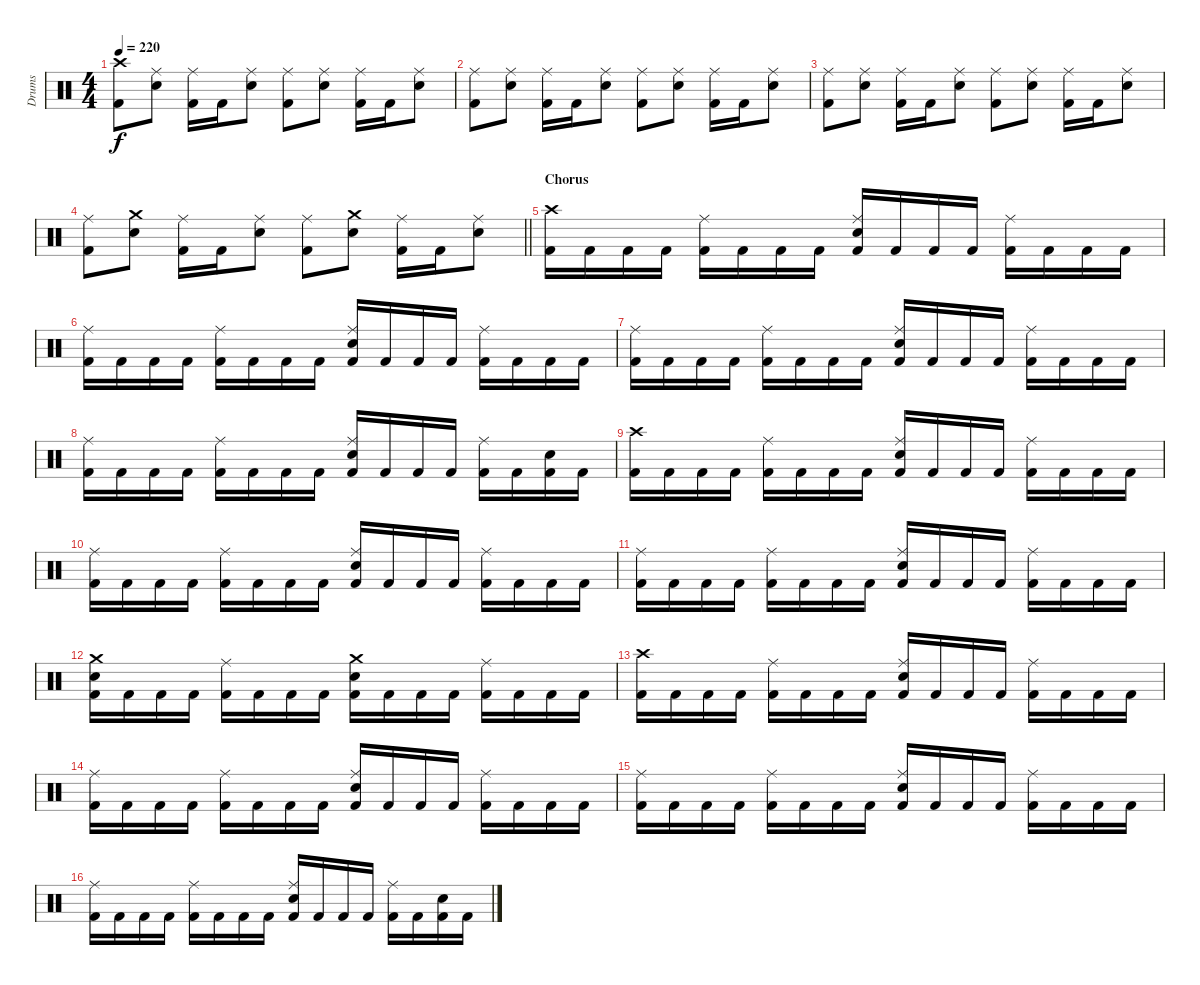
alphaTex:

\track ("Drums" "Drums") {instrument percussion}
\staff {score}
\articulation defaults
\ts (4 4)
\tempo 220
\clef neutral
\ks c
("Crash high (hit)" "Kick (hit) 2").8{dy f} ("Ride (middle)" "Snare (hit) 2").8 ("Ride (middle)" "Kick (hit) 2").16 "Kick (hit) 2".16 ("Ride (middle)" "Snare (hit) 2").8 ("Ride (middle)" "Kick (hit) 2").8 ("Ride (middle)" "Snare (hit) 2").8 ("Ride (middle)" "Kick (hit) 2").16 "Kick (hit) 2".16 ("Ride (middle)" "Snare (hit) 2").8 |
("Ride (middle)" "Kick (hit) 2").8 ("Ride (middle)" "Snare (hit) 2").8 ("Ride (middle)" "Kick (hit) 2").16 "Kick (hit) 2".16 ("Ride (middle)" "Snare (hit) 2").8 ("Ride (middle)" "Kick (hit) 2").8 ("Ride (middle)" "Snare (hit) 2").8 ("Ride (middle)" "Kick (hit) 2").16 "Kick (hit) 2".16 ("Ride (middle)" "Snare (hit) 2").8 |
("Ride (middle)" "Kick (hit) 2").8 ("Ride (middle)" "Snare (hit) 2").8 ("Ride (middle)" "Kick (hit) 2").16 "Kick (hit) 2".16 ("Ride (middle)" "Snare (hit) 2").8 ("Ride (middle)" "Kick (hit) 2").8 ("Ride (middle)" "Snare (hit) 2").8 ("Ride (middle)" "Kick (hit) 2").16 "Kick (hit) 2".16 ("Ride (middle)" "Snare (hit) 2").8 |
\barLineRight lightlight
("Ride (middle)" "Kick (hit) 2").8 ("Crash medium (hit)" "Snare (hit) 2").8 ("Ride (middle)" "Kick (hit) 2").16 "Kick (hit) 2".16 ("Ride (middle)" "Snare (hit) 2").8 ("Ride (middle)" "Kick (hit) 2").8 ("Crash medium (hit)" "Snare (hit) 2").8 ("Ride (middle)" "Kick (hit) 2").16 "Kick (hit) 2".16 ("Ride (middle)" "Snare (hit) 2").8 |
\section ("" "Chorus")
("Crash high (hit)" "Kick (hit) 2").16 "Kick (hit) 2".16 "Kick (hit) 2".16 "Kick (hit) 2".16 ("Ride (middle)" "Kick (hit) 2").16 "Kick (hit) 2".16 "Kick (hit) 2".16 "Kick (hit) 2".16 ("Ride (middle)" "Snare (hit) 2" "Kick (hit) 2").16 "Kick (hit) 2".16 "Kick (hit) 2".16 "Kick (hit) 2".16 ("Ride (middle)" "Kick (hit) 2").16 "Kick (hit) 2".16 "Kick (hit) 2".16 "Kick (hit) 2".16 |
("Ride (middle)" "Kick (hit) 2").16 "Kick (hit) 2".16 "Kick (hit) 2".16 "Kick (hit) 2".16 ("Ride (middle)" "Kick (hit) 2").16 "Kick (hit) 2".16 "Kick (hit) 2".16 "Kick (hit) 2".16 ("Ride (middle)" "Snare (hit) 2" "Kick (hit) 2").16 "Kick (hit) 2".16 "Kick (hit) 2".16 "Kick (hit) 2".16 ("Ride (middle)" "Kick (hit) 2").16 "Kick (hit) 2".16 "Kick (hit) 2".16 "Kick (hit) 2".16 |
("Ride (middle)" "Kick (hit) 2").16 "Kick (hit) 2".16 "Kick (hit) 2".16 "Kick (hit) 2".16 ("Ride (middle)" "Kick (hit) 2").16 "Kick (hit) 2".16 "Kick (hit) 2".16 "Kick (hit) 2".16 ("Ride (middle)" "Snare (hit) 2" "Kick (hit) 2").16 "Kick (hit) 2".16 "Kick (hit) 2".16 "Kick (hit) 2".16 ("Ride (middle)" "Kick (hit) 2").16 "Kick (hit) 2".16 "Kick (hit) 2".16 "Kick (hit) 2".16 |
("Ride (middle)" "Kick (hit) 2").16 "Kick (hit) 2".16 "Kick (hit) 2".16 "Kick (hit) 2".16 ("Ride (middle)" "Kick (hit) 2").16 "Kick (hit) 2".16 "Kick (hit) 2".16 "Kick (hit) 2".16 ("Ride (middle)" "Snare (hit) 2" "Kick (hit) 2").16 "Kick (hit) 2".16 "Kick (hit) 2".16 "Kick (hit) 2".16 ("Ride (middle)" "Kick (hit) 2").16 "Kick (hit) 2".16 ("Snare (hit) 2" "Kick (hit) 2").16 "Kick (hit) 2".16 |
("Crash high (hit)" "Kick (hit) 2").16 "Kick (hit) 2".16 "Kick (hit) 2".16 "Kick (hit) 2".16 ("Ride (middle)" "Kick (hit) 2").16 "Kick (hit) 2".16 "Kick (hit) 2".16 "Kick (hit) 2".16 ("Ride (middle)" "Snare (hit) 2" "Kick (hit) 2").16 "Kick (hit) 2".16 "Kick (hit) 2".16 "Kick (hit) 2".16 ("Ride (middle)" "Kick (hit) 2").16 "Kick (hit) 2".16 "Kick (hit) 2".16 "Kick (hit) 2".16 |
("Ride (middle)" "Kick (hit) 2").16 "Kick (hit) 2".16 "Kick (hit) 2".16 "Kick (hit) 2".16 ("Ride (middle)" "Kick (hit) 2").16 "Kick (hit) 2".16 "Kick (hit) 2".16 "Kick (hit) 2".16 ("Ride (middle)" "Snare (hit) 2" "Kick (hit) 2").16 "Kick (hit) 2".16 "Kick (hit) 2".16 "Kick (hit) 2".16 ("Ride (middle)" "Kick (hit) 2").16 "Kick (hit) 2".16 "Kick (hit) 2".16 "Kick (hit) 2".16 |
("Ride (middle)" "Kick (hit) 2").16 "Kick (hit) 2".16 "Kick (hit) 2".16 "Kick (hit) 2".16 ("Ride (middle)" "Kick (hit) 2").16 "Kick (hit) 2".16 "Kick (hit) 2".16 "Kick (hit) 2".16 ("Ride (middle)" "Snare (hit) 2" "Kick (hit) 2").16 "Kick (hit) 2".16 "Kick (hit) 2".16 "Kick (hit) 2".16 ("Ride (middle)" "Kick (hit) 2").16 "Kick (hit) 2".16 "Kick (hit) 2".16 "Kick (hit) 2".16 |
("Crash medium (hit)" "Snare (hit) 2" "Kick (hit) 2").16 "Kick (hit) 2".16 "Kick (hit) 2".16 "Kick (hit) 2".16 ("Ride (middle)" "Kick (hit) 2").16 "Kick (hit) 2".16 "Kick (hit) 2".16 "Kick (hit) 2".16 ("Crash medium (hit)" "Snare (hit) 2" "Kick (hit) 2").16 "Kick (hit) 2".16 "Kick (hit) 2".16 "Kick (hit) 2".16 ("Ride (middle)" "Kick (hit) 2").16 "Kick (hit) 2".16 "Kick (hit) 2".16 "Kick (hit) 2".16 |
("Crash high (hit)" "Kick (hit) 2").16 "Kick (hit) 2".16 "Kick (hit) 2".16 "Kick (hit) 2".16 ("Ride (middle)" "Kick (hit) 2").16 "Kick (hit) 2".16 "Kick (hit) 2".16 "Kick (hit) 2".16 ("Ride (middle)" "Snare (hit) 2" "Kick (hit) 2").16 "Kick (hit) 2".16 "Kick (hit) 2".16 "Kick (hit) 2".16 ("Ride (middle)" "Kick (hit) 2").16 "Kick (hit) 2".16 "Kick (hit) 2".16 "Kick (hit) 2".16 |
("Ride (middle)" "Kick (hit) 2").16 "Kick (hit) 2".16 "Kick (hit) 2".16 "Kick (hit) 2".16 ("Ride (middle)" "Kick (hit) 2").16 "Kick (hit) 2".16 "Kick (hit) 2".16 "Kick (hit) 2".16 ("Ride (middle)" "Snare (hit) 2" "Kick (hit) 2").16 "Kick (hit) 2".16 "Kick (hit) 2".16 "Kick (hit) 2".16 ("Ride (middle)" "Kick (hit) 2").16 "Kick (hit) 2".16 "Kick (hit) 2".16 "Kick (hit) 2".16 |
("Ride (middle)" "Kick (hit) 2").16 "Kick (hit) 2".16 "Kick (hit) 2".16 "Kick (hit) 2".16 ("Ride (middle)" "Kick (hit) 2").16 "Kick (hit) 2".16 "Kick (hit) 2".16 "Kick (hit) 2".16 ("Ride (middle)" "Snare (hit) 2" "Kick (hit) 2").16 "Kick (hit) 2".16 "Kick (hit) 2".16 "Kick (hit) 2".16 ("Ride (middle)" "Kick (hit) 2").16 "Kick (hit) 2".16 "Kick (hit) 2".16 "Kick (hit) 2".16 |
("Ride (middle)" "Kick (hit) 2").16 "Kick (hit) 2".16 "Kick (hit) 2".16 "Kick (hit) 2".16 ("Ride (middle)" "Kick (hit) 2").16 "Kick (hit) 2".16 "Kick (hit) 2".16 "Kick (hit) 2".16 ("Ride (middle)" "Snare (hit) 2" "Kick (hit) 2").16 "Kick (hit) 2".16 "Kick (hit) 2".16 "Kick (hit) 2".16 ("Ride (middle)" "Kick (hit) 2").16 "Kick (hit) 2".16 ("Snare (hit) 2" "Kick (hit) 2").16 "Kick (hit) 2".16
